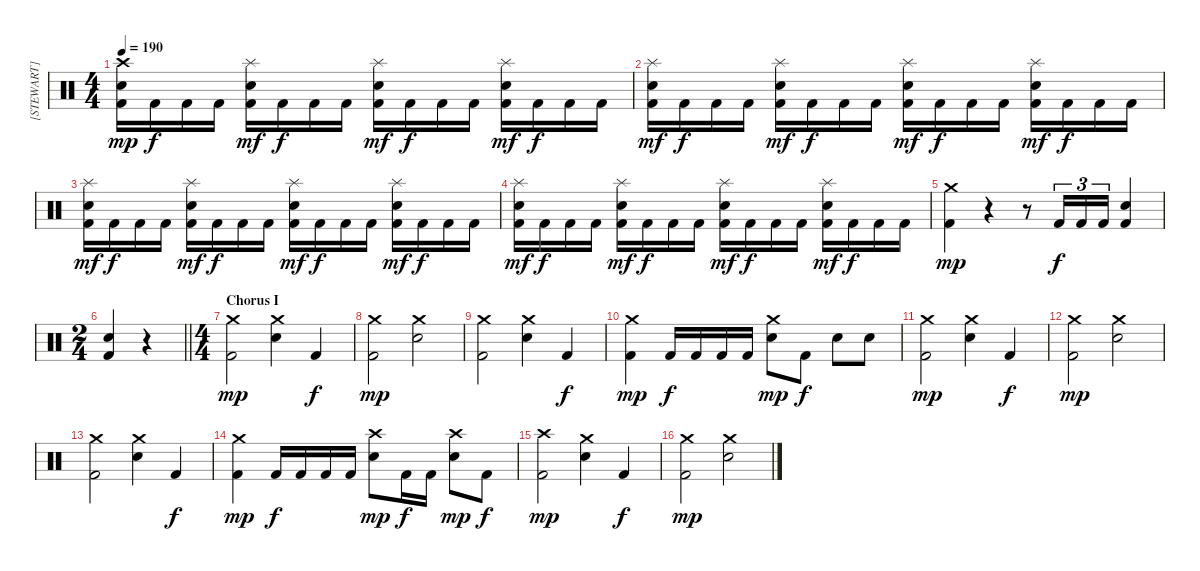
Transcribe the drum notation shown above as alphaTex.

\track ("[STEWART]" "[STEWART]") {instrument percussion}
\staff {score}
\articulation defaults
\ts (4 4)
\tempo 190
\clef neutral
\ks c
("Crash high (hit)" "Electric Snare (hit)" "Kick (hit) 2").16{dy mp} "Kick (hit) 2".16{dy f} "Kick (hit) 2".16 "Kick (hit) 2".16 ("Splash (hit)" "Electric Snare (hit)" "Kick (hit) 2").16{dy mf} "Kick (hit) 2".16{dy f} "Kick (hit) 2".16 "Kick (hit) 2".16 ("Splash (hit)" "Electric Snare (hit)" "Kick (hit) 2").16{dy mf} "Kick (hit) 2".16{dy f} "Kick (hit) 2".16 "Kick (hit) 2".16 ("Splash (hit)" "Electric Snare (hit)" "Kick (hit) 2").16{dy mf} "Kick (hit) 2".16{dy f} "Kick (hit) 2".16 "Kick (hit) 2".16 |
("Splash (hit)" "Electric Snare (hit)" "Kick (hit) 2").16{dy mf} "Kick (hit) 2".16{dy f} "Kick (hit) 2".16 "Kick (hit) 2".16 ("Splash (hit)" "Electric Snare (hit)" "Kick (hit) 2").16{dy mf} "Kick (hit) 2".16{dy f} "Kick (hit) 2".16 "Kick (hit) 2".16 ("Splash (hit)" "Electric Snare (hit)" "Kick (hit) 2").16{dy mf} "Kick (hit) 2".16{dy f} "Kick (hit) 2".16 "Kick (hit) 2".16 ("Splash (hit)" "Electric Snare (hit)" "Kick (hit) 2").16{dy mf} "Kick (hit) 2".16{dy f} "Kick (hit) 2".16 "Kick (hit) 2".16 |
("Splash (hit)" "Electric Snare (hit)" "Kick (hit) 2").16{dy mf} "Kick (hit) 2".16{dy f} "Kick (hit) 2".16 "Kick (hit) 2".16 ("Splash (hit)" "Electric Snare (hit)" "Kick (hit) 2").16{dy mf} "Kick (hit) 2".16{dy f} "Kick (hit) 2".16 "Kick (hit) 2".16 ("Splash (hit)" "Electric Snare (hit)" "Kick (hit) 2").16{dy mf} "Kick (hit) 2".16{dy f} "Kick (hit) 2".16 "Kick (hit) 2".16 ("Splash (hit)" "Electric Snare (hit)" "Kick (hit) 2").16{dy mf} "Kick (hit) 2".16{dy f} "Kick (hit) 2".16 "Kick (hit) 2".16 |
("Splash (hit)" "Electric Snare (hit)" "Kick (hit) 2").16{dy mf} "Kick (hit) 2".16{dy f} "Kick (hit) 2".16 "Kick (hit) 2".16 ("Splash (hit)" "Electric Snare (hit)" "Kick (hit) 2").16{dy mf} "Kick (hit) 2".16{dy f} "Kick (hit) 2".16 "Kick (hit) 2".16 ("Splash (hit)" "Electric Snare (hit)" "Kick (hit) 2").16{dy mf} "Kick (hit) 2".16{dy f} "Kick (hit) 2".16 "Kick (hit) 2".16 ("Splash (hit)" "Electric Snare (hit)" "Kick (hit) 2").16{dy mf} "Kick (hit) 2".16{dy f} "Kick (hit) 2".16 "Kick (hit) 2".16 |
("Crash medium (hit)" "Kick (hit) 2").4{dy mp} r.4 r.8 "Kick (hit) 2".16{tu (3 2) dy f} "Kick (hit) 2".16{tu (3 2)} "Kick (hit) 2".16{tu (3 2)} ("Electric Snare (hit)" "Kick (hit) 2").4 |
\ts (2 4)
\barLineRight lightlight
("Electric Snare (hit)" "Kick (hit) 2").4 r.4 |
\ts (4 4)
\section ("" "Chorus I")
("Crash medium (hit)" "Kick (hit) 2").2{dy mp} ("Crash medium (hit)" "Electric Snare (hit)").4 "Kick (hit) 2".4{dy f} |
("Crash medium (hit)" "Kick (hit) 2").2{dy mp} ("Crash medium (hit)" "Electric Snare (hit)").2 |
("Crash medium (hit)" "Kick (hit) 2").2 ("Crash medium (hit)" "Electric Snare (hit)").4 "Kick (hit) 2".4{dy f} |
("Crash medium (hit)" "Kick (hit) 2").4{dy mp} "Kick (hit) 2".16{dy f} "Kick (hit) 2".16 "Kick (hit) 2".16 "Kick (hit) 2".16 ("Crash medium (hit)" "Electric Snare (hit)").8{dy mp} "Kick (hit) 2".8{dy f} "Electric Snare (hit)".8 "Electric Snare (hit)".8 |
("Crash medium (hit)" "Kick (hit) 2").2{dy mp} ("Crash medium (hit)" "Electric Snare (hit)").4 "Kick (hit) 2".4{dy f} |
("Crash medium (hit)" "Kick (hit) 2").2{dy mp} ("Crash medium (hit)" "Electric Snare (hit)").2 |
("Crash medium (hit)" "Kick (hit) 2").2 ("Crash medium (hit)" "Electric Snare (hit)").4 "Kick (hit) 2".4{dy f} |
("Crash medium (hit)" "Kick (hit) 2").4{dy mp} "Kick (hit) 2".16{dy f} "Kick (hit) 2".16 "Kick (hit) 2".16 "Kick (hit) 2".16 ("Crash high (hit)" "Electric Snare (hit)").8{dy mp} "Kick (hit) 2".16{dy f} "Kick (hit) 2".16 ("Crash high (hit)" "Electric Snare (hit)").8{dy mp} "Kick (hit) 2".8{dy f} |
("Crash high (hit)" "Kick (hit) 2").2{dy mp} ("Crash medium (hit)" "Electric Snare (hit)").4 "Kick (hit) 2".4{dy f} |
("Crash medium (hit)" "Kick (hit) 2").2{dy mp} ("Crash medium (hit)" "Electric Snare (hit)").2
